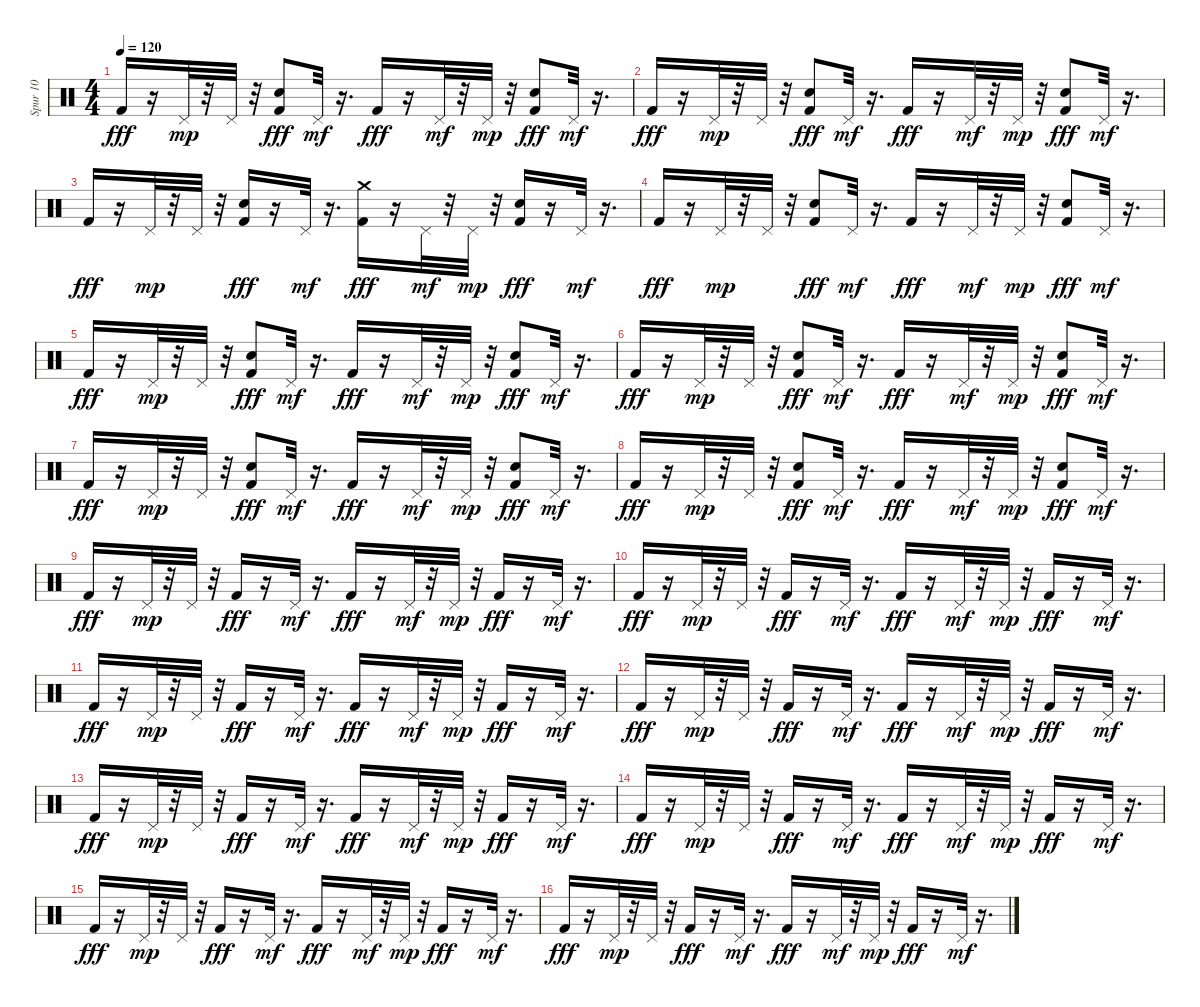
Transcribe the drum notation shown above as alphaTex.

\track ("Spur 10" "Spur 10") {instrument percussion}
\staff {score}
\articulation defaults
\ts (4 4)
\tempo 120
\clef neutral
\ks c "Kick (hit) 2".16{dy fff}
r.16 "Pedal Hi-Hat (hit)".32{dy mp} r.32 "Pedal Hi-Hat (hit)".32 r.32 ("Electric Snare (hit)" "Kick (hit) 2").8{dy fff} "Pedal Hi-Hat (hit)".32{dy mf} r.16{d} "Kick (hit) 2".16{dy fff} r.16 "Pedal Hi-Hat (hit)".32{dy mf} r.32 "Pedal Hi-Hat (hit)".32{dy mp} r.32 ("Electric Snare (hit)" "Kick (hit) 2").8{dy fff} "Pedal Hi-Hat (hit)".32{dy mf} r.16{d} |
"Kick (hit) 2".16{dy fff} r.16 "Pedal Hi-Hat (hit)".32{dy mp} r.32 "Pedal Hi-Hat (hit)".32 r.32 ("Electric Snare (hit)" "Kick (hit) 2").8{dy fff} "Pedal Hi-Hat (hit)".32{dy mf} r.16{d} "Kick (hit) 2".16{dy fff} r.16 "Pedal Hi-Hat (hit)".32{dy mf} r.32 "Pedal Hi-Hat (hit)".32{dy mp} r.32 ("Electric Snare (hit)" "Kick (hit) 2").8{dy fff} "Pedal Hi-Hat (hit)".32{dy mf} r.16{d} |
"Kick (hit) 2".16{dy fff} r.16 "Pedal Hi-Hat (hit)".32{dy mp} r.32 "Pedal Hi-Hat (hit)".32 r.32 ("Electric Snare (hit)" "Kick (hit) 2").16{dy fff} r.16 "Pedal Hi-Hat (hit)".32{dy mf} r.16{d} ("Kick (hit) 2" "Crash medium (hit)").16{dy fff} r.16 "Pedal Hi-Hat (hit)".32{dy mf} r.32 "Pedal Hi-Hat (hit)".32{dy mp} r.32 ("Electric Snare (hit)" "Kick (hit) 2").16{dy fff} r.16 "Pedal Hi-Hat (hit)".32{dy mf} r.16{d} |
"Kick (hit) 2".16{dy fff} r.16 "Pedal Hi-Hat (hit)".32{dy mp} r.32 "Pedal Hi-Hat (hit)".32 r.32 ("Electric Snare (hit)" "Kick (hit) 2").8{dy fff} "Pedal Hi-Hat (hit)".32{dy mf} r.16{d} "Kick (hit) 2".16{dy fff} r.16 "Pedal Hi-Hat (hit)".32{dy mf} r.32 "Pedal Hi-Hat (hit)".32{dy mp} r.32 ("Electric Snare (hit)" "Kick (hit) 2").8{dy fff} "Pedal Hi-Hat (hit)".32{dy mf} r.16{d} |
"Kick (hit) 2".16{dy fff} r.16 "Pedal Hi-Hat (hit)".32{dy mp} r.32 "Pedal Hi-Hat (hit)".32 r.32 ("Electric Snare (hit)" "Kick (hit) 2").8{dy fff} "Pedal Hi-Hat (hit)".32{dy mf} r.16{d} "Kick (hit) 2".16{dy fff} r.16 "Pedal Hi-Hat (hit)".32{dy mf} r.32 "Pedal Hi-Hat (hit)".32{dy mp} r.32 ("Electric Snare (hit)" "Kick (hit) 2").8{dy fff} "Pedal Hi-Hat (hit)".32{dy mf} r.16{d} |
"Kick (hit) 2".16{dy fff} r.16 "Pedal Hi-Hat (hit)".32{dy mp} r.32 "Pedal Hi-Hat (hit)".32 r.32 ("Electric Snare (hit)" "Kick (hit) 2").8{dy fff} "Pedal Hi-Hat (hit)".32{dy mf} r.16{d} "Kick (hit) 2".16{dy fff} r.16 "Pedal Hi-Hat (hit)".32{dy mf} r.32 "Pedal Hi-Hat (hit)".32{dy mp} r.32 ("Electric Snare (hit)" "Kick (hit) 2").8{dy fff} "Pedal Hi-Hat (hit)".32{dy mf} r.16{d} |
"Kick (hit) 2".16{dy fff} r.16 "Pedal Hi-Hat (hit)".32{dy mp} r.32 "Pedal Hi-Hat (hit)".32 r.32 ("Electric Snare (hit)" "Kick (hit) 2").8{dy fff} "Pedal Hi-Hat (hit)".32{dy mf} r.16{d} "Kick (hit) 2".16{dy fff} r.16 "Pedal Hi-Hat (hit)".32{dy mf} r.32 "Pedal Hi-Hat (hit)".32{dy mp} r.32 ("Electric Snare (hit)" "Kick (hit) 2").8{dy fff} "Pedal Hi-Hat (hit)".32{dy mf} r.16{d} |
"Kick (hit) 2".16{dy fff} r.16 "Pedal Hi-Hat (hit)".32{dy mp} r.32 "Pedal Hi-Hat (hit)".32 r.32 ("Electric Snare (hit)" "Kick (hit) 2").8{dy fff} "Pedal Hi-Hat (hit)".32{dy mf} r.16{d} "Kick (hit) 2".16{dy fff} r.16 "Pedal Hi-Hat (hit)".32{dy mf} r.32 "Pedal Hi-Hat (hit)".32{dy mp} r.32 ("Electric Snare (hit)" "Kick (hit) 2").8{dy fff} "Pedal Hi-Hat (hit)".32{dy mf} r.16{d} |
"Kick (hit) 2".16{dy fff} r.16 "Pedal Hi-Hat (hit)".32{dy mp} r.32 "Pedal Hi-Hat (hit)".32 r.32 "Kick (hit) 2".16{dy fff} r.16 "Pedal Hi-Hat (hit)".32{dy mf} r.16{d} "Kick (hit) 2".16{dy fff} r.16 "Pedal Hi-Hat (hit)".32{dy mf} r.32 "Pedal Hi-Hat (hit)".32{dy mp} r.32 "Kick (hit) 2".16{dy fff} r.16 "Pedal Hi-Hat (hit)".32{dy mf} r.16{d} |
"Kick (hit) 2".16{dy fff} r.16 "Pedal Hi-Hat (hit)".32{dy mp} r.32 "Pedal Hi-Hat (hit)".32 r.32 "Kick (hit) 2".16{dy fff} r.16 "Pedal Hi-Hat (hit)".32{dy mf} r.16{d} "Kick (hit) 2".16{dy fff} r.16 "Pedal Hi-Hat (hit)".32{dy mf} r.32 "Pedal Hi-Hat (hit)".32{dy mp} r.32 "Kick (hit) 2".16{dy fff} r.16 "Pedal Hi-Hat (hit)".32{dy mf} r.16{d} |
"Kick (hit) 2".16{dy fff} r.16 "Pedal Hi-Hat (hit)".32{dy mp} r.32 "Pedal Hi-Hat (hit)".32 r.32 "Kick (hit) 2".16{dy fff} r.16 "Pedal Hi-Hat (hit)".32{dy mf} r.16{d} "Kick (hit) 2".16{dy fff} r.16 "Pedal Hi-Hat (hit)".32{dy mf} r.32 "Pedal Hi-Hat (hit)".32{dy mp} r.32 "Kick (hit) 2".16{dy fff} r.16 "Pedal Hi-Hat (hit)".32{dy mf} r.16{d} |
"Kick (hit) 2".16{dy fff} r.16 "Pedal Hi-Hat (hit)".32{dy mp} r.32 "Pedal Hi-Hat (hit)".32 r.32 "Kick (hit) 2".16{dy fff} r.16 "Pedal Hi-Hat (hit)".32{dy mf} r.16{d} "Kick (hit) 2".16{dy fff} r.16 "Pedal Hi-Hat (hit)".32{dy mf} r.32 "Pedal Hi-Hat (hit)".32{dy mp} r.32 "Kick (hit) 2".16{dy fff} r.16 "Pedal Hi-Hat (hit)".32{dy mf} r.16{d} |
"Kick (hit) 2".16{dy fff} r.16 "Pedal Hi-Hat (hit)".32{dy mp} r.32 "Pedal Hi-Hat (hit)".32 r.32 "Kick (hit) 2".16{dy fff} r.16 "Pedal Hi-Hat (hit)".32{dy mf} r.16{d} "Kick (hit) 2".16{dy fff} r.16 "Pedal Hi-Hat (hit)".32{dy mf} r.32 "Pedal Hi-Hat (hit)".32{dy mp} r.32 "Kick (hit) 2".16{dy fff} r.16 "Pedal Hi-Hat (hit)".32{dy mf} r.16{d} |
"Kick (hit) 2".16{dy fff} r.16 "Pedal Hi-Hat (hit)".32{dy mp} r.32 "Pedal Hi-Hat (hit)".32 r.32 "Kick (hit) 2".16{dy fff} r.16 "Pedal Hi-Hat (hit)".32{dy mf} r.16{d} "Kick (hit) 2".16{dy fff} r.16 "Pedal Hi-Hat (hit)".32{dy mf} r.32 "Pedal Hi-Hat (hit)".32{dy mp} r.32 "Kick (hit) 2".16{dy fff} r.16 "Pedal Hi-Hat (hit)".32{dy mf} r.16{d} |
"Kick (hit) 2".16{dy fff} r.16 "Pedal Hi-Hat (hit)".32{dy mp} r.32 "Pedal Hi-Hat (hit)".32 r.32 "Kick (hit) 2".16{dy fff} r.16 "Pedal Hi-Hat (hit)".32{dy mf} r.16{d} "Kick (hit) 2".16{dy fff} r.16 "Pedal Hi-Hat (hit)".32{dy mf} r.32 "Pedal Hi-Hat (hit)".32{dy mp} r.32 "Kick (hit) 2".16{dy fff} r.16 "Pedal Hi-Hat (hit)".32{dy mf} r.16{d} |
"Kick (hit) 2".16{dy fff} r.16 "Pedal Hi-Hat (hit)".32{dy mp} r.32 "Pedal Hi-Hat (hit)".32 r.32 "Kick (hit) 2".16{dy fff} r.16 "Pedal Hi-Hat (hit)".32{dy mf} r.16{d} "Kick (hit) 2".16{dy fff} r.16 "Pedal Hi-Hat (hit)".32{dy mf} r.32 "Pedal Hi-Hat (hit)".32{dy mp} r.32 "Kick (hit) 2".16{dy fff} r.16 "Pedal Hi-Hat (hit)".32{dy mf} r.16{d}
